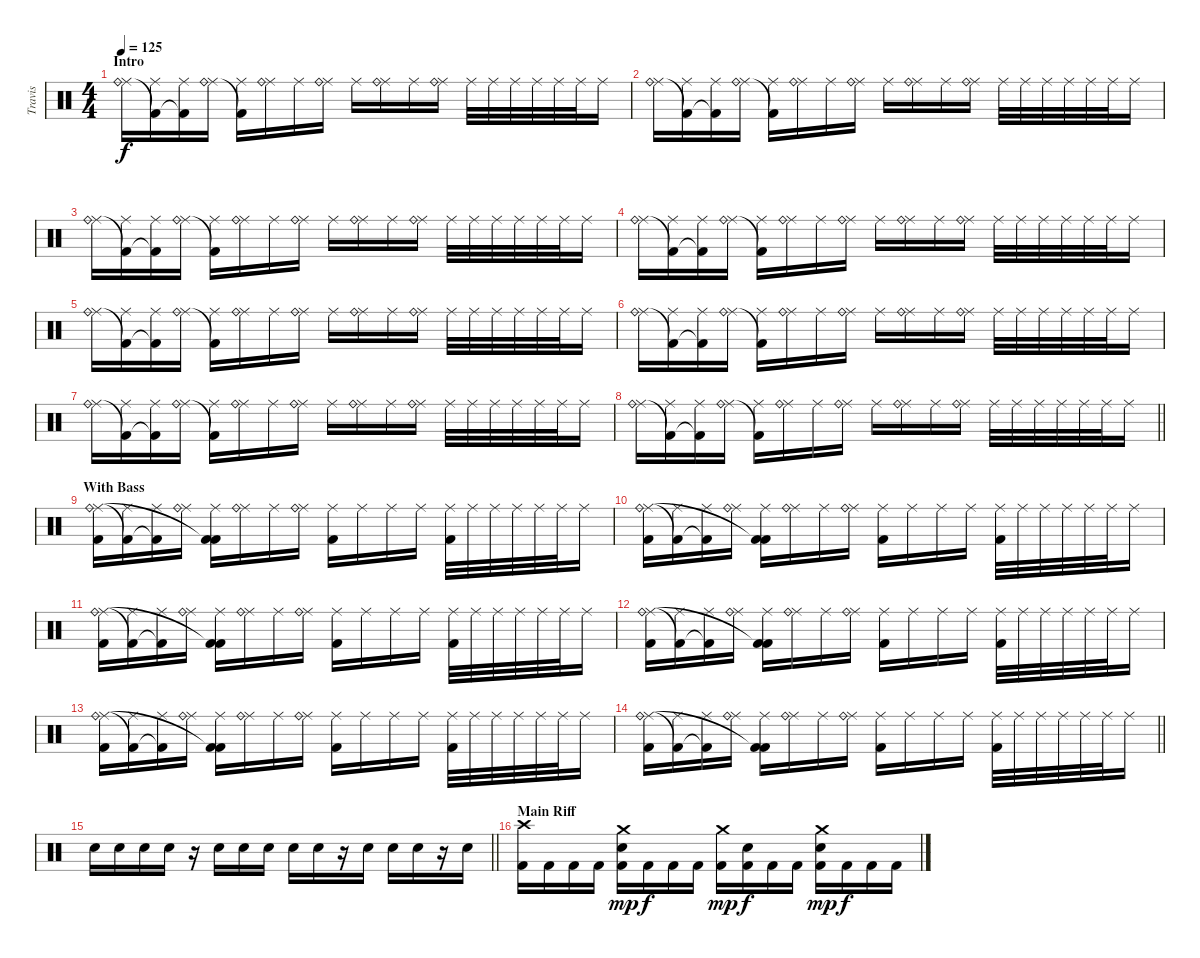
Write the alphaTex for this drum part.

\track ("Travis" "Travis") {instrument percussion}
\staff {score}
\articulation defaults
\ts (4 4)
\section ("" "Intro")
\tempo 125
\clef neutral
\ks c
("Ride (middle)" "Ride (bell)").16{lyrics (0 "") lyrics (1 "") lyrics (2 "") lyrics (3 "") lyrics (4 "") dy f} ("Ride (middle)" "Kick (hit) 2"{t}).16 ("Ride (middle)" "Kick (hit) 2"{t}).16 ("Ride (middle)" "Ride (bell)").16 ("Ride (middle)" "Kick (hit) 2"{t}).16 ("Ride (middle)" "Ride (bell)").16 "Ride (middle)".16 ("Ride (middle)" "Ride (bell)").16 "Ride (middle)".16 ("Ride (middle)" "Ride (bell)").16 "Ride (middle)".16 ("Ride (middle)" "Ride (bell)").16 "Ride (middle)".32 "Ride (middle)".32 "Ride (middle)".32 "Ride (middle)".32 "Ride (middle)".32 "Ride (middle)".32 "Ride (middle)".16 |
("Ride (middle)" "Ride (bell)").16 ("Ride (middle)" "Kick (hit) 2"{t}).16 ("Ride (middle)" "Kick (hit) 2"{t}).16 ("Ride (middle)" "Ride (bell)").16 ("Ride (middle)" "Kick (hit) 2"{t}).16 ("Ride (middle)" "Ride (bell)").16 "Ride (middle)".16 ("Ride (middle)" "Ride (bell)").16 "Ride (middle)".16 ("Ride (middle)" "Ride (bell)").16 "Ride (middle)".16 ("Ride (middle)" "Ride (bell)").16 "Ride (middle)".32 "Ride (middle)".32 "Ride (middle)".32 "Ride (middle)".32 "Ride (middle)".32 "Ride (middle)".32 "Ride (middle)".16 |
("Ride (middle)" "Ride (bell)").16 ("Ride (middle)" "Kick (hit) 2"{t}).16 ("Ride (middle)" "Kick (hit) 2"{t}).16 ("Ride (middle)" "Ride (bell)").16 ("Ride (middle)" "Kick (hit) 2"{t}).16 ("Ride (middle)" "Ride (bell)").16 "Ride (middle)".16 ("Ride (middle)" "Ride (bell)").16 "Ride (middle)".16 ("Ride (middle)" "Ride (bell)").16 "Ride (middle)".16 ("Ride (middle)" "Ride (bell)").16 "Ride (middle)".32 "Ride (middle)".32 "Ride (middle)".32 "Ride (middle)".32 "Ride (middle)".32 "Ride (middle)".32 "Ride (middle)".16 |
("Ride (middle)" "Ride (bell)").16 ("Ride (middle)" "Kick (hit) 2"{t}).16 ("Ride (middle)" "Kick (hit) 2"{t}).16 ("Ride (middle)" "Ride (bell)").16 ("Ride (middle)" "Kick (hit) 2"{t}).16 ("Ride (middle)" "Ride (bell)").16 "Ride (middle)".16 ("Ride (middle)" "Ride (bell)").16 "Ride (middle)".16 ("Ride (middle)" "Ride (bell)").16 "Ride (middle)".16 ("Ride (middle)" "Ride (bell)").16 "Ride (middle)".32 "Ride (middle)".32 "Ride (middle)".32 "Ride (middle)".32 "Ride (middle)".32 "Ride (middle)".32 "Ride (middle)".16 |
("Ride (middle)" "Ride (bell)").16 ("Ride (middle)" "Kick (hit) 2"{t}).16 ("Ride (middle)" "Kick (hit) 2"{t}).16 ("Ride (middle)" "Ride (bell)").16 ("Ride (middle)" "Kick (hit) 2"{t}).16 ("Ride (middle)" "Ride (bell)").16 "Ride (middle)".16 ("Ride (middle)" "Ride (bell)").16 "Ride (middle)".16 ("Ride (middle)" "Ride (bell)").16 "Ride (middle)".16 ("Ride (middle)" "Ride (bell)").16 "Ride (middle)".32 "Ride (middle)".32 "Ride (middle)".32 "Ride (middle)".32 "Ride (middle)".32 "Ride (middle)".32 "Ride (middle)".16 |
("Ride (middle)" "Ride (bell)").16 ("Ride (middle)" "Kick (hit) 2"{t}).16 ("Ride (middle)" "Kick (hit) 2"{t}).16 ("Ride (middle)" "Ride (bell)").16 ("Ride (middle)" "Kick (hit) 2"{t}).16 ("Ride (middle)" "Ride (bell)").16 "Ride (middle)".16 ("Ride (middle)" "Ride (bell)").16 "Ride (middle)".16 ("Ride (middle)" "Ride (bell)").16 "Ride (middle)".16 ("Ride (middle)" "Ride (bell)").16 "Ride (middle)".32 "Ride (middle)".32 "Ride (middle)".32 "Ride (middle)".32 "Ride (middle)".32 "Ride (middle)".32 "Ride (middle)".16 |
("Ride (middle)" "Ride (bell)").16 ("Ride (middle)" "Kick (hit) 2"{t}).16 ("Ride (middle)" "Kick (hit) 2"{t}).16 ("Ride (middle)" "Ride (bell)").16 ("Ride (middle)" "Kick (hit) 2"{t}).16 ("Ride (middle)" "Ride (bell)").16 "Ride (middle)".16 ("Ride (middle)" "Ride (bell)").16 "Ride (middle)".16 ("Ride (middle)" "Ride (bell)").16 "Ride (middle)".16 ("Ride (middle)" "Ride (bell)").16 "Ride (middle)".32 "Ride (middle)".32 "Ride (middle)".32 "Ride (middle)".32 "Ride (middle)".32 "Ride (middle)".32 "Ride (middle)".16 |
\barLineRight lightlight
("Ride (middle)" "Ride (bell)").16 ("Ride (middle)" "Kick (hit) 2"{t}).16 ("Ride (middle)" "Kick (hit) 2"{t}).16 ("Ride (middle)" "Ride (bell)").16 ("Ride (middle)" "Kick (hit) 2"{t}).16 ("Ride (middle)" "Ride (bell)").16 "Ride (middle)".16 ("Ride (middle)" "Ride (bell)").16 "Ride (middle)".16 ("Ride (middle)" "Ride (bell)").16 "Ride (middle)".16 ("Ride (middle)" "Ride (bell)").16 "Ride (middle)".32 "Ride (middle)".32 "Ride (middle)".32 "Ride (middle)".32 "Ride (middle)".32 "Ride (middle)".32 "Ride (middle)".16 |
\section ("" "With Bass")
("Kick (hit) 2" "Ride (middle)" "Ride (bell)").16 ("Ride (middle)" "Kick (hit) 2"{t}).16 ("Ride (middle)" "Kick (hit) 2"{t}).16 ("Ride (middle)" "Ride (bell)").16 ("Kick (hit) 2" "Ride (middle)" "Kick (hit) 2"{t}).16 ("Ride (middle)" "Ride (bell)").16 "Ride (middle)".16 ("Ride (middle)" "Ride (bell)").16 ("Kick (hit) 2" "Ride (middle)").16 "Ride (middle)".16 "Ride (middle)".16 "Ride (middle)".16 ("Kick (hit) 2" "Ride (middle)").32 "Ride (middle)".32 "Ride (middle)".32 "Ride (middle)".32 "Ride (middle)".32 "Ride (middle)".32 "Ride (middle)".16 |
("Kick (hit) 2" "Ride (middle)" "Ride (bell)").16 ("Ride (middle)" "Kick (hit) 2"{t}).16 ("Ride (middle)" "Kick (hit) 2"{t}).16 ("Ride (middle)" "Ride (bell)").16 ("Kick (hit) 2" "Ride (middle)" "Kick (hit) 2"{t}).16 ("Ride (middle)" "Ride (bell)").16 "Ride (middle)".16 ("Ride (middle)" "Ride (bell)").16 ("Kick (hit) 2" "Ride (middle)").16 "Ride (middle)".16 "Ride (middle)".16 "Ride (middle)".16 ("Kick (hit) 2" "Ride (middle)").32 "Ride (middle)".32 "Ride (middle)".32 "Ride (middle)".32 "Ride (middle)".32 "Ride (middle)".32 "Ride (middle)".16 |
("Kick (hit) 2" "Ride (middle)" "Ride (bell)").16 ("Ride (middle)" "Kick (hit) 2"{t}).16 ("Ride (middle)" "Kick (hit) 2"{t}).16 ("Ride (middle)" "Ride (bell)").16 ("Kick (hit) 2" "Ride (middle)" "Kick (hit) 2"{t}).16 ("Ride (middle)" "Ride (bell)").16 "Ride (middle)".16 ("Ride (middle)" "Ride (bell)").16 ("Kick (hit) 2" "Ride (middle)").16 "Ride (middle)".16 "Ride (middle)".16 "Ride (middle)".16 ("Kick (hit) 2" "Ride (middle)").32 "Ride (middle)".32 "Ride (middle)".32 "Ride (middle)".32 "Ride (middle)".32 "Ride (middle)".32 "Ride (middle)".16 |
("Kick (hit) 2" "Ride (middle)" "Ride (bell)").16 ("Ride (middle)" "Kick (hit) 2"{t}).16 ("Ride (middle)" "Kick (hit) 2"{t}).16 ("Ride (middle)" "Ride (bell)").16 ("Kick (hit) 2" "Ride (middle)" "Kick (hit) 2"{t}).16 ("Ride (middle)" "Ride (bell)").16 "Ride (middle)".16 ("Ride (middle)" "Ride (bell)").16 ("Kick (hit) 2" "Ride (middle)").16 "Ride (middle)".16 "Ride (middle)".16 "Ride (middle)".16 ("Kick (hit) 2" "Ride (middle)").32 "Ride (middle)".32 "Ride (middle)".32 "Ride (middle)".32 "Ride (middle)".32 "Ride (middle)".32 "Ride (middle)".16 |
("Kick (hit) 2" "Ride (middle)" "Ride (bell)").16 ("Ride (middle)" "Kick (hit) 2"{t}).16 ("Ride (middle)" "Kick (hit) 2"{t}).16 ("Ride (middle)" "Ride (bell)").16 ("Kick (hit) 2" "Ride (middle)" "Kick (hit) 2"{t}).16 ("Ride (middle)" "Ride (bell)").16 "Ride (middle)".16 ("Ride (middle)" "Ride (bell)").16 ("Kick (hit) 2" "Ride (middle)").16 "Ride (middle)".16 "Ride (middle)".16 "Ride (middle)".16 ("Kick (hit) 2" "Ride (middle)").32 "Ride (middle)".32 "Ride (middle)".32 "Ride (middle)".32 "Ride (middle)".32 "Ride (middle)".32 "Ride (middle)".16 |
\barLineRight lightlight
("Kick (hit) 2" "Ride (middle)" "Ride (bell)").16 ("Ride (middle)" "Kick (hit) 2"{t}).16 ("Ride (middle)" "Kick (hit) 2"{t}).16 ("Ride (middle)" "Ride (bell)").16 ("Kick (hit) 2" "Ride (middle)" "Kick (hit) 2"{t}).16 ("Ride (middle)" "Ride (bell)").16 "Ride (middle)".16 ("Ride (middle)" "Ride (bell)").16 ("Kick (hit) 2" "Ride (middle)").16 "Ride (middle)".16 "Ride (middle)".16 "Ride (middle)".16 ("Kick (hit) 2" "Ride (middle)").32 "Ride (middle)".32 "Ride (middle)".32 "Ride (middle)".32 "Ride (middle)".32 "Ride (middle)".32 "Ride (middle)".16 |
\section ("" "")
\barLineRight lightlight "Electric Snare (hit)".16 "Electric Snare (hit)".16 "Electric Snare (hit)".16 "Electric Snare (hit)".16
r.16 "Electric Snare (hit)".16 "Electric Snare (hit)".16 "Electric Snare (hit)".16 "Electric Snare (hit)".16 "Electric Snare (hit)".16 r.16 "Electric Snare (hit)".16 "Electric Snare (hit)".16 "Electric Snare (hit)".16 r.16 "Electric Snare (hit)".16 |
\section ("" "Main Riff")
("Crash high (hit)" "Kick (hit) 2").16 "Kick (hit) 2".16 "Kick (hit) 2".16 "Kick (hit) 2".16 ("Crash medium (hit)" "Electric Snare (hit)" "Kick (hit) 2").16{dy mp} "Kick (hit) 2".16{dy f} "Kick (hit) 2".16 "Kick (hit) 2".16 ("Crash medium (hit)" "Kick (hit) 2").16{dy mp} ("Electric Snare (hit)" "Kick (hit) 2").16{dy f} "Kick (hit) 2".16 "Kick (hit) 2".16 ("Crash medium (hit)" "Electric Snare (hit)" "Kick (hit) 2").16{dy mp} "Kick (hit) 2".16{dy f} "Kick (hit) 2".16 "Kick (hit) 2".16
